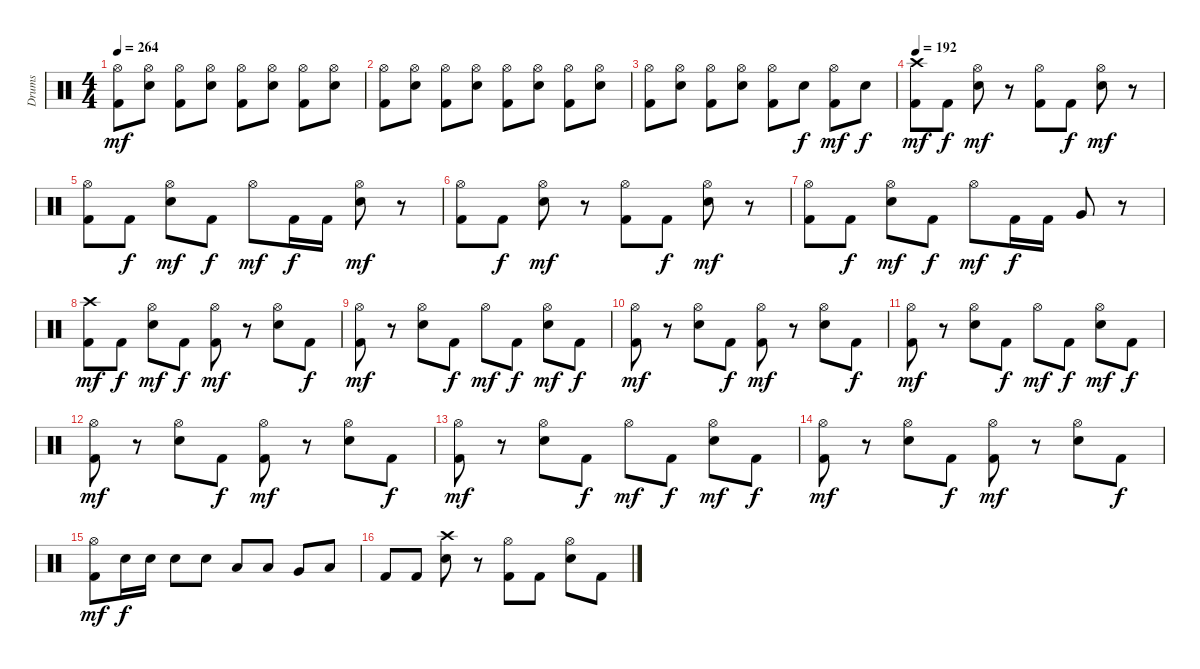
\track ("Drums" "Drums") {instrument percussion}
\staff {score}
\articulation defaults
\ts (4 4)
\tempo 264
\clef neutral
\ks c
("Hi-Hat (open)" "Kick (hit) 2").8{dy mf} ("Hi-Hat (open)" "Snare (hit) 2").8 ("Hi-Hat (open)" "Kick (hit) 2").8 ("Hi-Hat (open)" "Snare (hit) 2").8 ("Hi-Hat (open)" "Kick (hit) 2").8 ("Hi-Hat (open)" "Snare (hit) 2").8 ("Hi-Hat (open)" "Kick (hit) 2").8 ("Hi-Hat (open)" "Snare (hit) 2").8 |
("Hi-Hat (open)" "Kick (hit) 2").8 ("Hi-Hat (open)" "Snare (hit) 2").8 ("Hi-Hat (open)" "Kick (hit) 2").8 ("Hi-Hat (open)" "Snare (hit) 2").8 ("Hi-Hat (open)" "Kick (hit) 2").8 ("Hi-Hat (open)" "Snare (hit) 2").8 ("Hi-Hat (open)" "Kick (hit) 2").8 ("Hi-Hat (open)" "Snare (hit) 2").8 |
("Hi-Hat (open)" "Kick (hit) 2").8 ("Hi-Hat (open)" "Snare (hit) 2").8 ("Hi-Hat (open)" "Kick (hit) 2").8 ("Hi-Hat (open)" "Snare (hit) 2").8 ("Hi-Hat (open)" "Kick (hit) 2").8 "Snare (hit) 2".8{dy f} ("Hi-Hat (open)" "Kick (hit) 2").8{dy mf} "Snare (hit) 2".8{dy f} |
\tempo 192
("Crash high (hit)" "Kick (hit) 2").8{dy mf} "Kick (hit) 2".8{dy f} ("Hi-Hat (open)" "Snare (hit) 2").8{dy mf} r.8 ("Hi-Hat (open)" "Kick (hit) 2").8 "Kick (hit) 2".8{dy f} ("Hi-Hat (open)" "Snare (hit) 2").8{dy mf} r.8 |
("Hi-Hat (open)" "Kick (hit) 2").8 "Kick (hit) 2".8{dy f} ("Hi-Hat (open)" "Snare (hit) 2").8{dy mf} "Kick (hit) 2".8{dy f} "Hi-Hat (open)".8{dy mf} "Kick (hit) 2".16{dy f} "Kick (hit) 2".16 ("Hi-Hat (open)" "Snare (hit) 2").8{dy mf} r.8 |
("Hi-Hat (open)" "Kick (hit) 2").8 "Kick (hit) 2".8{dy f} ("Hi-Hat (open)" "Snare (hit) 2").8{dy mf} r.8 ("Hi-Hat (open)" "Kick (hit) 2").8 "Kick (hit) 2".8{dy f} ("Hi-Hat (open)" "Snare (hit) 2").8{dy mf} r.8 |
("Hi-Hat (open)" "Kick (hit) 2").8 "Kick (hit) 2".8{dy f} ("Hi-Hat (open)" "Snare (hit) 2").8{dy mf} "Kick (hit) 2".8{dy f} "Hi-Hat (open)".8{dy mf} "Kick (hit) 2".16{dy f} "Kick (hit) 2".16 "Very Low Tom (hit)".8 r.8 |
("Crash high (hit)" "Kick (hit) 2").8{dy mf} "Kick (hit) 2".8{dy f} ("Hi-Hat (open)" "Snare (hit) 2").8{dy mf} "Kick (hit) 2".8{dy f} ("Hi-Hat (open)" "Kick (hit) 2").8{dy mf} r.8 ("Hi-Hat (open)" "Snare (hit) 2").8 "Kick (hit) 2".8{dy f} |
("Hi-Hat (open)" "Kick (hit) 2").8{dy mf} r.8 ("Hi-Hat (open)" "Snare (hit) 2").8 "Kick (hit) 2".8{dy f} "Hi-Hat (open)".8{dy mf} "Kick (hit) 2".8{dy f} ("Hi-Hat (open)" "Snare (hit) 2").8{dy mf} "Kick (hit) 2".8{dy f} |
("Hi-Hat (open)" "Kick (hit) 2").8{dy mf} r.8 ("Hi-Hat (open)" "Snare (hit) 2").8 "Kick (hit) 2".8{dy f} ("Hi-Hat (open)" "Kick (hit) 2").8{dy mf} r.8 ("Hi-Hat (open)" "Snare (hit) 2").8 "Kick (hit) 2".8{dy f} |
("Hi-Hat (open)" "Kick (hit) 2").8{dy mf} r.8 ("Hi-Hat (open)" "Snare (hit) 2").8 "Kick (hit) 2".8{dy f} "Hi-Hat (open)".8{dy mf} "Kick (hit) 2".8{dy f} ("Hi-Hat (open)" "Snare (hit) 2").8{dy mf} "Kick (hit) 2".8{dy f} |
("Hi-Hat (open)" "Kick (hit) 2").8{dy mf} r.8 ("Hi-Hat (open)" "Snare (hit) 2").8 "Kick (hit) 2".8{dy f} ("Hi-Hat (open)" "Kick (hit) 2").8{dy mf} r.8 ("Hi-Hat (open)" "Snare (hit) 2").8 "Kick (hit) 2".8{dy f} |
("Hi-Hat (open)" "Kick (hit) 2").8{dy mf} r.8 ("Hi-Hat (open)" "Snare (hit) 2").8 "Kick (hit) 2".8{dy f} "Hi-Hat (open)".8{dy mf} "Kick (hit) 2".8{dy f} ("Hi-Hat (open)" "Snare (hit) 2").8{dy mf} "Kick (hit) 2".8{dy f} |
("Hi-Hat (open)" "Kick (hit) 2").8{dy mf} r.8 ("Hi-Hat (open)" "Snare (hit) 2").8 "Kick (hit) 2".8{dy f} ("Hi-Hat (open)" "Kick (hit) 2").8{dy mf} r.8 ("Hi-Hat (open)" "Snare (hit) 2").8 "Kick (hit) 2".8{dy f} |
("Hi-Hat (open)" "Kick (hit) 2").8{dy mf} "Snare (hit) 2".16{dy f} "Snare (hit) 2".16 "Snare (hit) 2".8 "Snare (hit) 2".8 "Low Tom (hit)".8 "Low Tom (hit)".8 "Very Low Tom (hit)".8 "Low Floor Tom (hit)".8 |
"Kick (hit) 2".8 "Kick (hit) 2".8 ("Crash high (hit)" "Snare (hit) 2").8 r.8 ("Hi-Hat (open)" "Kick (hit) 2").8 "Kick (hit) 2".8 ("Hi-Hat (open)" "Snare (hit) 2").8 "Kick (hit) 2".8
